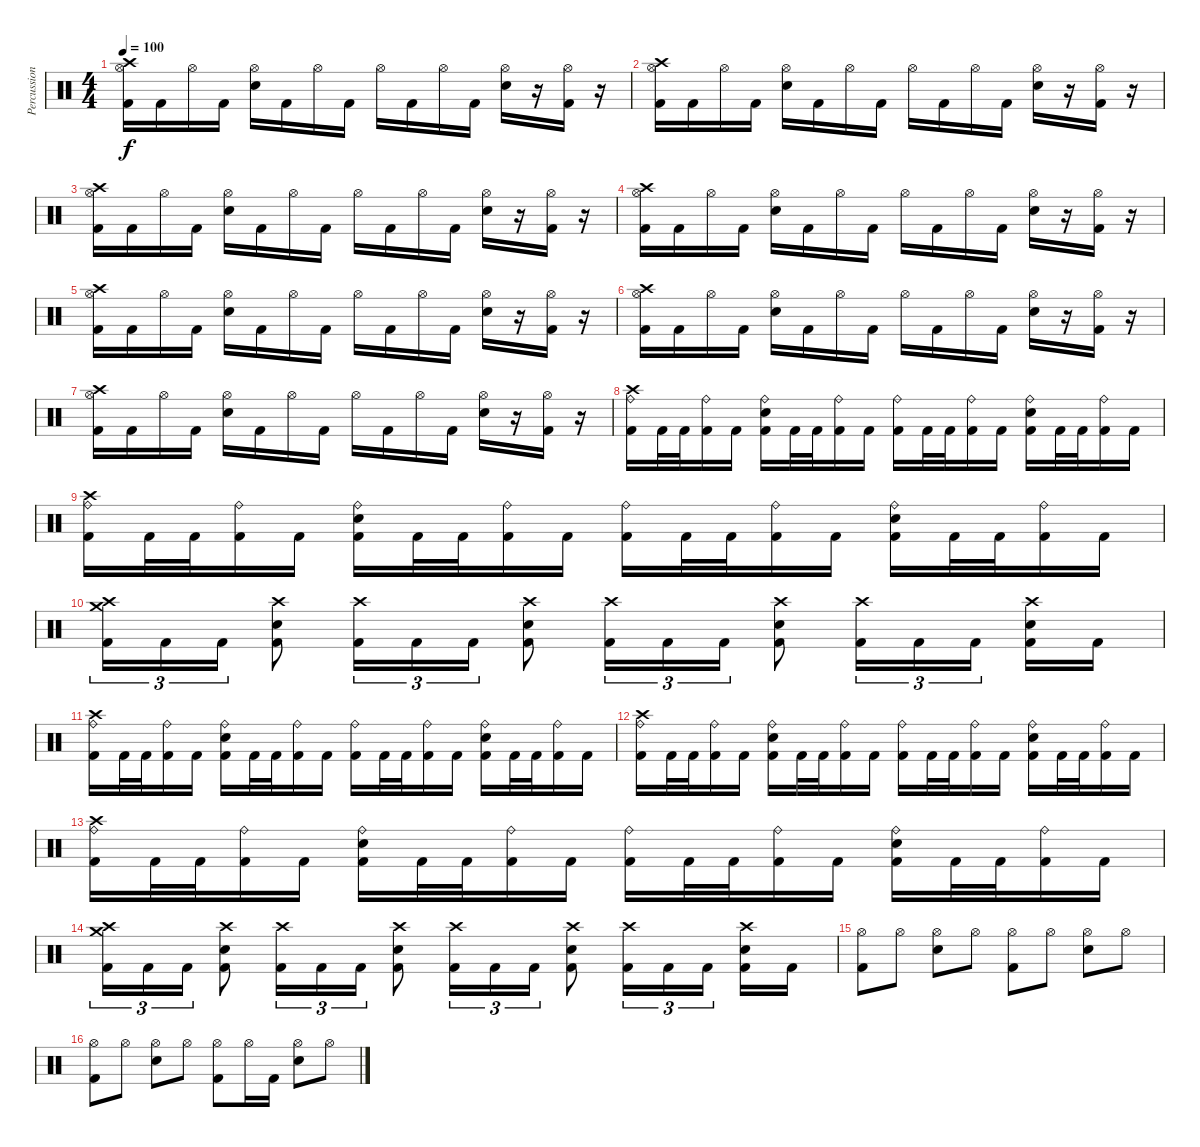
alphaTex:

\track ("Percussion" "Percussion") {instrument percussion}
\staff {score}
\articulation defaults
\ts (4 4)
\tempo 100
\clef neutral
\ks c
("Hi-Hat (open)" "Crash high (hit)" "Kick (hit) 2").16{dy f} "Kick (hit) 2".16 "Hi-Hat (open)".16 "Kick (hit) 2".16 ("Hi-Hat (open)" "Electric Snare (hit)").16 "Kick (hit) 2".16 "Hi-Hat (open)".16 "Kick (hit) 2".16 "Hi-Hat (open)".16 "Kick (hit) 2".16 "Hi-Hat (open)".16 "Kick (hit) 2".16 ("Hi-Hat (open)" "Electric Snare (hit)").16 r.16 ("Hi-Hat (open)" "Kick (hit) 2").16 r.16 |
("Hi-Hat (open)" "Crash high (hit)" "Kick (hit) 2").16 "Kick (hit) 2".16 "Hi-Hat (open)".16 "Kick (hit) 2".16 ("Hi-Hat (open)" "Electric Snare (hit)").16 "Kick (hit) 2".16 "Hi-Hat (open)".16 "Kick (hit) 2".16 "Hi-Hat (open)".16 "Kick (hit) 2".16 "Hi-Hat (open)".16 "Kick (hit) 2".16 ("Hi-Hat (open)" "Electric Snare (hit)").16 r.16 ("Hi-Hat (open)" "Kick (hit) 2").16 r.16 |
("Hi-Hat (open)" "Crash high (hit)" "Kick (hit) 2").16 "Kick (hit) 2".16 "Hi-Hat (open)".16 "Kick (hit) 2".16 ("Hi-Hat (open)" "Electric Snare (hit)").16 "Kick (hit) 2".16 "Hi-Hat (open)".16 "Kick (hit) 2".16 "Hi-Hat (open)".16 "Kick (hit) 2".16 "Hi-Hat (open)".16 "Kick (hit) 2".16 ("Hi-Hat (open)" "Electric Snare (hit)").16 r.16 ("Hi-Hat (open)" "Kick (hit) 2").16 r.16 |
("Hi-Hat (open)" "Crash high (hit)" "Kick (hit) 2").16 "Kick (hit) 2".16 "Hi-Hat (open)".16 "Kick (hit) 2".16 ("Hi-Hat (open)" "Electric Snare (hit)").16 "Kick (hit) 2".16 "Hi-Hat (open)".16 "Kick (hit) 2".16 "Hi-Hat (open)".16 "Kick (hit) 2".16 "Hi-Hat (open)".16 "Kick (hit) 2".16 ("Hi-Hat (open)" "Electric Snare (hit)").16 r.16 ("Hi-Hat (open)" "Kick (hit) 2").16 r.16 |
("Hi-Hat (open)" "Crash high (hit)" "Kick (hit) 2").16 "Kick (hit) 2".16 "Hi-Hat (open)".16 "Kick (hit) 2".16 ("Hi-Hat (open)" "Electric Snare (hit)").16 "Kick (hit) 2".16 "Hi-Hat (open)".16 "Kick (hit) 2".16 "Hi-Hat (open)".16 "Kick (hit) 2".16 "Hi-Hat (open)".16 "Kick (hit) 2".16 ("Hi-Hat (open)" "Electric Snare (hit)").16 r.16 ("Hi-Hat (open)" "Kick (hit) 2").16 r.16 |
("Hi-Hat (open)" "Crash high (hit)" "Kick (hit) 2").16 "Kick (hit) 2".16 "Hi-Hat (open)".16 "Kick (hit) 2".16 ("Hi-Hat (open)" "Electric Snare (hit)").16 "Kick (hit) 2".16 "Hi-Hat (open)".16 "Kick (hit) 2".16 "Hi-Hat (open)".16 "Kick (hit) 2".16 "Hi-Hat (open)".16 "Kick (hit) 2".16 ("Hi-Hat (open)" "Electric Snare (hit)").16 r.16 ("Hi-Hat (open)" "Kick (hit) 2").16 r.16 |
("Hi-Hat (open)" "Crash high (hit)" "Kick (hit) 2").16 "Kick (hit) 2".16 "Hi-Hat (open)".16 "Kick (hit) 2".16 ("Hi-Hat (open)" "Electric Snare (hit)").16 "Kick (hit) 2".16 "Hi-Hat (open)".16 "Kick (hit) 2".16 "Hi-Hat (open)".16 "Kick (hit) 2".16 "Hi-Hat (open)".16 "Kick (hit) 2".16 ("Hi-Hat (open)" "Electric Snare (hit)").16 r.16 ("Hi-Hat (open)" "Kick (hit) 2").16 r.16 |
("Ride (bell)" "Crash high (hit)" "Kick (hit) 2").16 "Kick (hit) 2".32 "Kick (hit) 2".32 ("Ride (bell)" "Kick (hit) 2").16 "Kick (hit) 2".16 ("Ride (bell)" "Electric Snare (hit)" "Kick (hit) 2").16 "Kick (hit) 2".32 "Kick (hit) 2".32 ("Ride (bell)" "Kick (hit) 2").16 "Kick (hit) 2".16 ("Ride (bell)" "Kick (hit) 2").16 "Kick (hit) 2".32 "Kick (hit) 2".32 ("Ride (bell)" "Kick (hit) 2").16 "Kick (hit) 2".16 ("Ride (bell)" "Electric Snare (hit)" "Kick (hit) 2").16 "Kick (hit) 2".32 "Kick (hit) 2".32 ("Ride (bell)" "Kick (hit) 2").16 "Kick (hit) 2".16 |
("Ride (bell)" "Crash high (hit)" "Kick (hit) 2").16 "Kick (hit) 2".32 "Kick (hit) 2".32 ("Ride (bell)" "Kick (hit) 2").16 "Kick (hit) 2".16 ("Ride (bell)" "Electric Snare (hit)" "Kick (hit) 2").16 "Kick (hit) 2".32 "Kick (hit) 2".32 ("Ride (bell)" "Kick (hit) 2").16 "Kick (hit) 2".16 ("Ride (bell)" "Kick (hit) 2").16 "Kick (hit) 2".32 "Kick (hit) 2".32 ("Ride (bell)" "Kick (hit) 2").16 "Kick (hit) 2".16 ("Ride (bell)" "Electric Snare (hit)" "Kick (hit) 2").16 "Kick (hit) 2".32 "Kick (hit) 2".32 ("Ride (bell)" "Kick (hit) 2").16 "Kick (hit) 2".16 |
("Crash medium (hit)" "Crash high (hit)" "Kick (hit) 2").16{tu (3 2)} "Kick (hit) 2".16{tu (3 2)} "Kick (hit) 2".16{tu (3 2)} ("Crash high (hit)" "Electric Snare (hit)" "Kick (hit) 2").8 ("Crash high (hit)" "Kick (hit) 2").16{tu (3 2)} "Kick (hit) 2".16{tu (3 2)} "Kick (hit) 2".16{tu (3 2)} ("Crash high (hit)" "Electric Snare (hit)" "Kick (hit) 2").8 ("Crash high (hit)" "Kick (hit) 2").16{tu (3 2)} "Kick (hit) 2".16{tu (3 2)} "Kick (hit) 2".16{tu (3 2)} ("Crash high (hit)" "Electric Snare (hit)" "Kick (hit) 2").8 ("Crash high (hit)" "Kick (hit) 2").16{tu (3 2)} "Kick (hit) 2".16{tu (3 2)} "Kick (hit) 2".16{tu (3 2) beam splitsecondary} ("Crash high (hit)" "Electric Snare (hit)" "Kick (hit) 2").16 "Kick (hit) 2".16 |
("Ride (bell)" "Crash high (hit)" "Kick (hit) 2").16 "Kick (hit) 2".32 "Kick (hit) 2".32 ("Ride (bell)" "Kick (hit) 2").16 "Kick (hit) 2".16 ("Ride (bell)" "Electric Snare (hit)" "Kick (hit) 2").16 "Kick (hit) 2".32 "Kick (hit) 2".32 ("Ride (bell)" "Kick (hit) 2").16 "Kick (hit) 2".16 ("Ride (bell)" "Kick (hit) 2").16 "Kick (hit) 2".32 "Kick (hit) 2".32 ("Ride (bell)" "Kick (hit) 2").16 "Kick (hit) 2".16 ("Ride (bell)" "Electric Snare (hit)" "Kick (hit) 2").16 "Kick (hit) 2".32 "Kick (hit) 2".32 ("Ride (bell)" "Kick (hit) 2").16 "Kick (hit) 2".16 |
("Ride (bell)" "Crash high (hit)" "Kick (hit) 2").16 "Kick (hit) 2".32 "Kick (hit) 2".32 ("Ride (bell)" "Kick (hit) 2").16 "Kick (hit) 2".16 ("Ride (bell)" "Electric Snare (hit)" "Kick (hit) 2").16 "Kick (hit) 2".32 "Kick (hit) 2".32 ("Ride (bell)" "Kick (hit) 2").16 "Kick (hit) 2".16 ("Ride (bell)" "Kick (hit) 2").16 "Kick (hit) 2".32 "Kick (hit) 2".32 ("Ride (bell)" "Kick (hit) 2").16 "Kick (hit) 2".16 ("Ride (bell)" "Electric Snare (hit)" "Kick (hit) 2").16 "Kick (hit) 2".32 "Kick (hit) 2".32 ("Ride (bell)" "Kick (hit) 2").16 "Kick (hit) 2".16 |
("Ride (bell)" "Crash high (hit)" "Kick (hit) 2").16 "Kick (hit) 2".32 "Kick (hit) 2".32 ("Ride (bell)" "Kick (hit) 2").16 "Kick (hit) 2".16 ("Ride (bell)" "Electric Snare (hit)" "Kick (hit) 2").16 "Kick (hit) 2".32 "Kick (hit) 2".32 ("Ride (bell)" "Kick (hit) 2").16 "Kick (hit) 2".16 ("Ride (bell)" "Kick (hit) 2").16 "Kick (hit) 2".32 "Kick (hit) 2".32 ("Ride (bell)" "Kick (hit) 2").16 "Kick (hit) 2".16 ("Ride (bell)" "Electric Snare (hit)" "Kick (hit) 2").16 "Kick (hit) 2".32 "Kick (hit) 2".32 ("Ride (bell)" "Kick (hit) 2").16 "Kick (hit) 2".16 |
("Crash medium (hit)" "Crash high (hit)" "Kick (hit) 2").16{tu (3 2)} "Kick (hit) 2".16{tu (3 2)} "Kick (hit) 2".16{tu (3 2)} ("Crash high (hit)" "Electric Snare (hit)" "Kick (hit) 2").8 ("Crash high (hit)" "Kick (hit) 2").16{tu (3 2)} "Kick (hit) 2".16{tu (3 2)} "Kick (hit) 2".16{tu (3 2)} ("Crash high (hit)" "Electric Snare (hit)" "Kick (hit) 2").8 ("Crash high (hit)" "Kick (hit) 2").16{tu (3 2)} "Kick (hit) 2".16{tu (3 2)} "Kick (hit) 2".16{tu (3 2)} ("Crash high (hit)" "Electric Snare (hit)" "Kick (hit) 2").8 ("Crash high (hit)" "Kick (hit) 2").16{tu (3 2)} "Kick (hit) 2".16{tu (3 2)} "Kick (hit) 2".16{tu (3 2) beam splitsecondary} ("Crash high (hit)" "Electric Snare (hit)" "Kick (hit) 2").16 "Kick (hit) 2".16 |
("Hi-Hat (open)" "Kick (hit) 2").8 "Hi-Hat (open)".8 ("Hi-Hat (open)" "Electric Snare (hit)").8 "Hi-Hat (open)".8 ("Hi-Hat (open)" "Kick (hit) 2").8 "Hi-Hat (open)".8 ("Hi-Hat (open)" "Electric Snare (hit)").8 "Hi-Hat (open)".8 |
("Hi-Hat (open)" "Kick (hit) 2").8 "Hi-Hat (open)".8 ("Hi-Hat (open)" "Electric Snare (hit)").8 "Hi-Hat (open)".8 ("Hi-Hat (open)" "Kick (hit) 2").8 "Hi-Hat (open)".16 "Kick (hit) 2".16 ("Hi-Hat (open)" "Electric Snare (hit)").8 "Hi-Hat (open)".8
